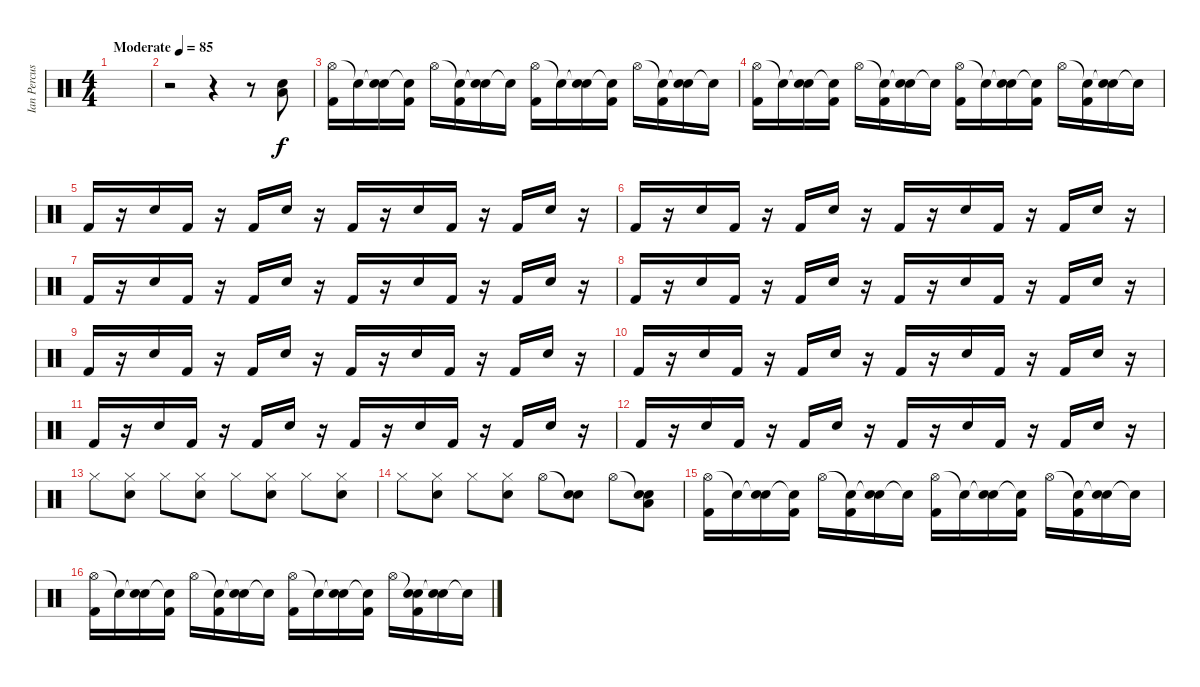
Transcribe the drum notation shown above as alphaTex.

\track ("Ian Percussion" "Ian Percus") {instrument percussion}
\staff {score}
\articulation defaults
\ts (4 4)
\tempo (85 "Moderate")
\clef neutral
\ks c
|
r.2 r.4 r.8 ("Electric Snare (hit)" "Low Floor Tom (hit)").8 |
("Hi-Hat (open)" "Kick (hit) 2").16 "Snare (hit)"{t}.16 ("Snare (hit)"{t} "Electric Snare (hit)").16 ("Snare (hit)"{t} "Kick (hit) 2").16 "Hi-Hat (open)".16 ("Snare (hit)"{t} "Kick (hit) 2").16 ("Snare (hit)"{t} "Electric Snare (hit)").16 "Snare (hit)"{t}.16 ("Hi-Hat (open)" "Kick (hit) 2").16 "Snare (hit)"{t}.16 ("Snare (hit)"{t} "Electric Snare (hit)").16 ("Snare (hit)"{t} "Kick (hit) 2").16 "Hi-Hat (open)".16 ("Snare (hit)"{t} "Kick (hit) 2").16 ("Snare (hit)"{t} "Electric Snare (hit)").16 "Snare (hit)"{t}.16 |
("Hi-Hat (open)" "Kick (hit) 2").16 "Snare (hit)"{t}.16 ("Snare (hit)"{t} "Electric Snare (hit)").16 ("Snare (hit)"{t} "Kick (hit) 2").16 "Hi-Hat (open)".16 ("Snare (hit)"{t} "Kick (hit) 2").16 ("Snare (hit)"{t} "Electric Snare (hit)").16 "Snare (hit)"{t}.16 ("Hi-Hat (open)" "Kick (hit) 2").16 "Snare (hit)"{t}.16 ("Snare (hit)"{t} "Electric Snare (hit)").16 ("Snare (hit)"{t} "Kick (hit) 2").16 "Hi-Hat (open)".16 ("Snare (hit)"{t} "Kick (hit) 2").16 ("Snare (hit)"{t} "Electric Snare (hit)").16 "Snare (hit)"{t}.16 |
"Kick (hit) 2".16 r.16 "Hand Clap (hit)".16 "Kick (hit) 2".16 r.16 "Kick (hit) 2".16 "Hand Clap (hit)".16 r.16 "Kick (hit) 2".16 r.16 "Hand Clap (hit)".16 "Kick (hit) 2".16 r.16 "Kick (hit) 2".16 "Hand Clap (hit)".16 r.16 |
"Kick (hit) 2".16 r.16 "Hand Clap (hit)".16 "Kick (hit) 2".16 r.16 "Kick (hit) 2".16 "Hand Clap (hit)".16 r.16 "Kick (hit) 2".16 r.16 "Hand Clap (hit)".16 "Kick (hit) 2".16 r.16 "Kick (hit) 2".16 "Hand Clap (hit)".16 r.16 |
"Kick (hit) 2".16 r.16 "Hand Clap (hit)".16 "Kick (hit) 2".16 r.16 "Kick (hit) 2".16 "Hand Clap (hit)".16 r.16 "Kick (hit) 2".16 r.16 "Hand Clap (hit)".16 "Kick (hit) 2".16 r.16 "Kick (hit) 2".16 "Hand Clap (hit)".16 r.16 |
"Kick (hit) 2".16 r.16 "Hand Clap (hit)".16 "Kick (hit) 2".16 r.16 "Kick (hit) 2".16 "Hand Clap (hit)".16 r.16 "Kick (hit) 2".16 r.16 "Hand Clap (hit)".16 "Kick (hit) 2".16 r.16 "Kick (hit) 2".16 "Hand Clap (hit)".16 r.16 |
"Kick (hit) 2".16 r.16 "Hand Clap (hit)".16 "Kick (hit) 2".16 r.16 "Kick (hit) 2".16 "Hand Clap (hit)".16 r.16 "Kick (hit) 2".16 r.16 "Hand Clap (hit)".16 "Kick (hit) 2".16 r.16 "Kick (hit) 2".16 "Hand Clap (hit)".16 r.16 |
"Kick (hit) 2".16 r.16 "Hand Clap (hit)".16 "Kick (hit) 2".16 r.16 "Kick (hit) 2".16 "Hand Clap (hit)".16 r.16 "Kick (hit) 2".16 r.16 "Hand Clap (hit)".16 "Kick (hit) 2".16 r.16 "Kick (hit) 2".16 "Hand Clap (hit)".16 r.16 |
"Kick (hit) 2".16 r.16 "Hand Clap (hit)".16 "Kick (hit) 2".16 r.16 "Kick (hit) 2".16 "Hand Clap (hit)".16 r.16 "Kick (hit) 2".16 r.16 "Hand Clap (hit)".16 "Kick (hit) 2".16 r.16 "Kick (hit) 2".16 "Hand Clap (hit)".16 r.16 |
"Kick (hit) 2".16 r.16 "Hand Clap (hit)".16 "Kick (hit) 2".16 r.16 "Kick (hit) 2".16 "Hand Clap (hit)".16 r.16 "Kick (hit) 2".16 r.16 "Hand Clap (hit)".16 "Kick (hit) 2".16 r.16 "Kick (hit) 2".16 "Hand Clap (hit)".16 r.16 |
"Hi-Hat (closed)".8 ("Hand Clap (hit)" "Hi-Hat (closed)").8 "Hi-Hat (closed)".8 ("Hand Clap (hit)" "Hi-Hat (closed)").8 "Hi-Hat (closed)".8 ("Hand Clap (hit)" "Hi-Hat (closed)").8 "Hi-Hat (closed)".8 ("Hand Clap (hit)" "Hi-Hat (closed)").8 |
"Hi-Hat (closed)".8 ("Hand Clap (hit)" "Hi-Hat (closed)").8 "Hi-Hat (closed)".8 ("Hand Clap (hit)" "Hi-Hat (closed)").8 "Hi-Hat (open)".8 ("Snare (hit)"{t} "Hand Clap (hit)").8 "Hi-Hat (open)".8 ("Snare (hit)"{t} "Electric Snare (hit)" "Low Floor Tom (hit)").8 |
("Hi-Hat (open)" "Kick (hit) 2").16 "Snare (hit)"{t}.16 ("Snare (hit)"{t} "Electric Snare (hit)").16 ("Snare (hit)"{t} "Kick (hit) 2").16 "Hi-Hat (open)".16 ("Snare (hit)"{t} "Kick (hit) 2").16 ("Snare (hit)"{t} "Electric Snare (hit)").16 "Snare (hit)"{t}.16 ("Hi-Hat (open)" "Kick (hit) 2").16 "Snare (hit)"{t}.16 ("Snare (hit)"{t} "Electric Snare (hit)").16 ("Snare (hit)"{t} "Kick (hit) 2").16 "Hi-Hat (open)".16 ("Snare (hit)"{t} "Kick (hit) 2").16 ("Snare (hit)"{t} "Electric Snare (hit)").16 "Snare (hit)"{t}.16 |
("Hi-Hat (open)" "Kick (hit) 2").16 "Snare (hit)"{t}.16 ("Snare (hit)"{t} "Electric Snare (hit)").16 ("Snare (hit)"{t} "Kick (hit) 2").16 "Hi-Hat (open)".16 ("Snare (hit)"{t} "Kick (hit) 2").16 ("Snare (hit)"{t} "Electric Snare (hit)").16 "Snare (hit)"{t}.16 ("Hi-Hat (open)" "Kick (hit) 2").16 "Snare (hit)"{t}.16 ("Snare (hit)"{t} "Electric Snare (hit)").16 ("Snare (hit)"{t} "Kick (hit) 2").16 "Hi-Hat (open)".16 ("Snare (hit)"{t} "Hand Clap (hit)" "Kick (hit) 2").16 ("Snare (hit)"{t} "Hand Clap (hit)").16 "Snare (hit)"{t}.16
